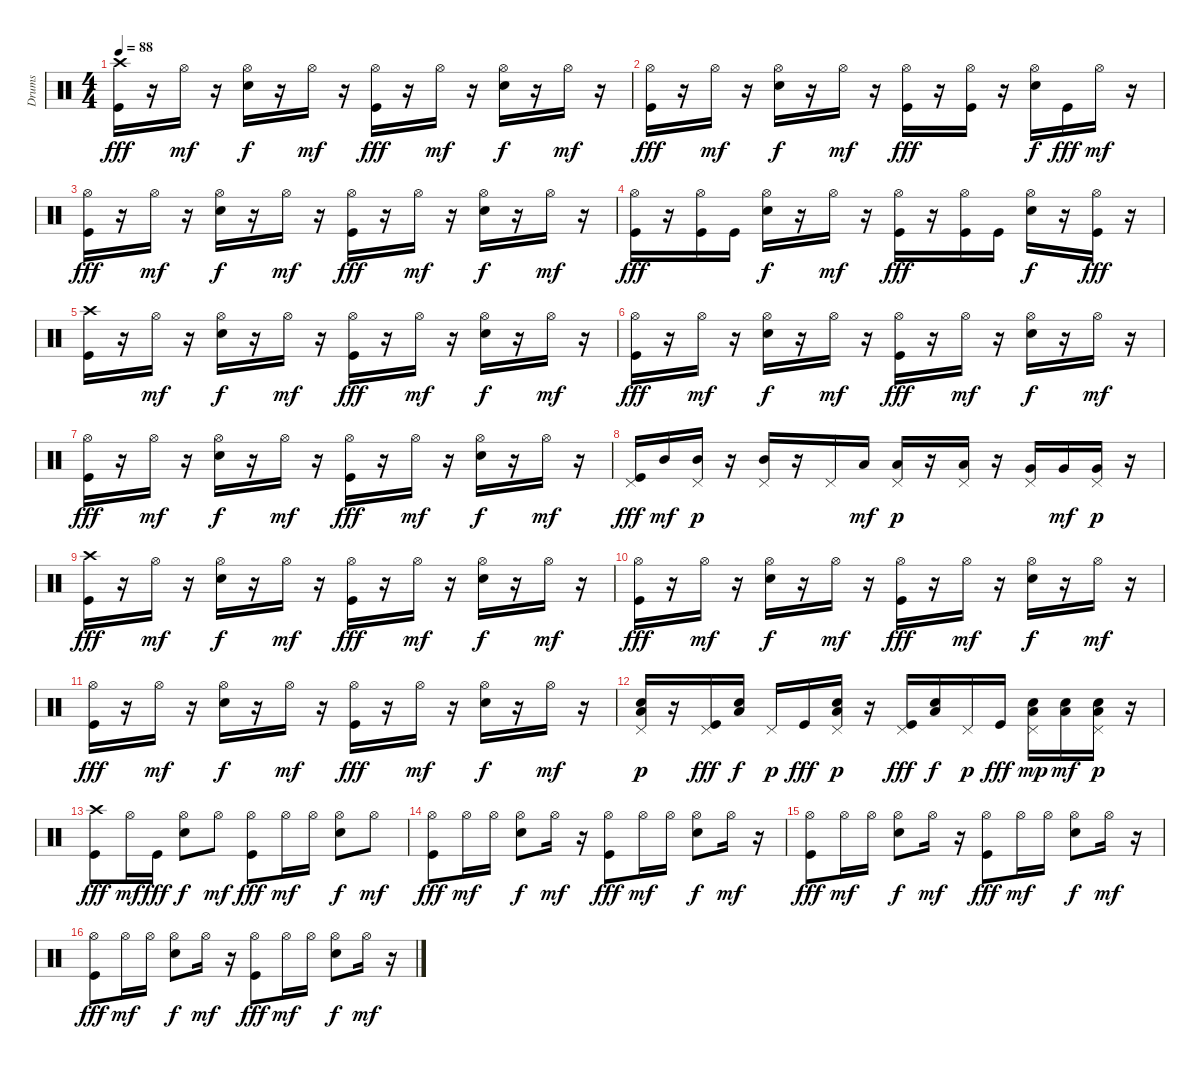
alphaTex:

\track ("Drums" "Drums") {instrument percussion}
\staff {score}
\articulation defaults
\ts (4 4)
\tempo 88
\clef neutral
\ks c
("Crash high (hit)" "Kick (hit)").16{dy fff} r.16 "Hi-Hat (open)".16{dy mf} r.16 ("Hi-Hat (open)" "Snare (hit) 2").16{dy f} r.16 "Hi-Hat (open)".16{dy mf} r.16 ("Hi-Hat (open)" "Kick (hit)").16{dy fff} r.16 "Hi-Hat (open)".16{dy mf} r.16 ("Hi-Hat (open)" "Snare (hit) 2").16{dy f} r.16 "Hi-Hat (open)".16{dy mf} r.16 |
("Hi-Hat (open)" "Kick (hit)").16{dy fff} r.16 "Hi-Hat (open)".16{dy mf} r.16 ("Hi-Hat (open)" "Snare (hit) 2").16{dy f} r.16 "Hi-Hat (open)".16{dy mf} r.16 ("Hi-Hat (open)" "Kick (hit)").16{dy fff} r.16 ("Hi-Hat (open)" "Kick (hit)").16 r.16 ("Hi-Hat (open)" "Snare (hit) 2").16{dy f} "Kick (hit)".16{dy fff} "Hi-Hat (open)".16{dy mf} r.16 |
("Hi-Hat (open)" "Kick (hit)").16{dy fff} r.16 "Hi-Hat (open)".16{dy mf} r.16 ("Hi-Hat (open)" "Snare (hit) 2").16{dy f} r.16 "Hi-Hat (open)".16{dy mf} r.16 ("Hi-Hat (open)" "Kick (hit)").16{dy fff} r.16 "Hi-Hat (open)".16{dy mf} r.16 ("Hi-Hat (open)" "Snare (hit) 2").16{dy f} r.16 "Hi-Hat (open)".16{dy mf} r.16 |
("Hi-Hat (open)" "Kick (hit)").16{dy fff} r.16 ("Hi-Hat (open)" "Kick (hit)").16 "Kick (hit)".16 ("Hi-Hat (open)" "Snare (hit) 2").16{dy f} r.16 "Hi-Hat (open)".16{dy mf} r.16 ("Hi-Hat (open)" "Kick (hit)").16{dy fff} r.16 ("Hi-Hat (open)" "Kick (hit)").16 "Kick (hit)".16 ("Hi-Hat (open)" "Snare (hit) 2").16{dy f} r.16 ("Hi-Hat (open)" "Kick (hit)").16{dy fff} r.16 |
("Crash high (hit)" "Kick (hit)").16 r.16 "Hi-Hat (open)".16{dy mf} r.16 ("Hi-Hat (open)" "Snare (hit) 2").16{dy f} r.16 "Hi-Hat (open)".16{dy mf} r.16 ("Hi-Hat (open)" "Kick (hit)").16{dy fff} r.16 "Hi-Hat (open)".16{dy mf} r.16 ("Hi-Hat (open)" "Snare (hit) 2").16{dy f} r.16 "Hi-Hat (open)".16{dy mf} r.16 |
("Hi-Hat (open)" "Kick (hit)").16{dy fff} r.16 "Hi-Hat (open)".16{dy mf} r.16 ("Hi-Hat (open)" "Snare (hit) 2").16{dy f} r.16 "Hi-Hat (open)".16{dy mf} r.16 ("Hi-Hat (open)" "Kick (hit)").16{dy fff} r.16 "Hi-Hat (open)".16{dy mf} r.16 ("Hi-Hat (open)" "Snare (hit) 2").16{dy f} r.16 "Hi-Hat (open)".16{dy mf} r.16 |
("Hi-Hat (open)" "Kick (hit)").16{dy fff} r.16 "Hi-Hat (open)".16{dy mf} r.16 ("Hi-Hat (open)" "Snare (hit) 2").16{dy f} r.16 "Hi-Hat (open)".16{dy mf} r.16 ("Hi-Hat (open)" "Kick (hit)").16{dy fff} r.16 "Hi-Hat (open)".16{dy mf} r.16 ("Hi-Hat (open)" "Snare (hit) 2").16{dy f} r.16 "Hi-Hat (open)".16{dy mf} r.16 |
("Pedal Hi-Hat (hit)" "Kick (hit)").16{dy fff} "Mid Tom (hit)".16{dy mf} ("Pedal Hi-Hat (hit)" "Mid Tom (hit)").16{dy p} r.16 ("Pedal Hi-Hat (hit)" "Mid Tom (hit)").16 r.16 "Pedal Hi-Hat (hit)".16 "Low Tom (hit)".16{dy mf} ("Pedal Hi-Hat (hit)" "Low Tom (hit)").16{dy p} r.16 ("Pedal Hi-Hat (hit)" "Low Tom (hit)").16 r.16 ("Pedal Hi-Hat (hit)" "Very Low Tom (hit)").16 "Very Low Tom (hit)".16{dy mf} ("Pedal Hi-Hat (hit)" "Very Low Tom (hit)").16{dy p} r.16 |
("Crash high (hit)" "Kick (hit)").16{dy fff} r.16 "Hi-Hat (open)".16{dy mf} r.16 ("Hi-Hat (open)" "Snare (hit) 2").16{dy f} r.16 "Hi-Hat (open)".16{dy mf} r.16 ("Hi-Hat (open)" "Kick (hit)").16{dy fff} r.16 "Hi-Hat (open)".16{dy mf} r.16 ("Hi-Hat (open)" "Snare (hit) 2").16{dy f} r.16 "Hi-Hat (open)".16{dy mf} r.16 |
("Hi-Hat (open)" "Kick (hit)").16{dy fff} r.16 "Hi-Hat (open)".16{dy mf} r.16 ("Hi-Hat (open)" "Snare (hit) 2").16{dy f} r.16 "Hi-Hat (open)".16{dy mf} r.16 ("Hi-Hat (open)" "Kick (hit)").16{dy fff} r.16 "Hi-Hat (open)".16{dy mf} r.16 ("Hi-Hat (open)" "Snare (hit) 2").16{dy f} r.16 "Hi-Hat (open)".16{dy mf} r.16 |
("Hi-Hat (open)" "Kick (hit)").16{dy fff} r.16 "Hi-Hat (open)".16{dy mf} r.16 ("Hi-Hat (open)" "Snare (hit) 2").16{dy f} r.16 "Hi-Hat (open)".16{dy mf} r.16 ("Hi-Hat (open)" "Kick (hit)").16{dy fff} r.16 "Hi-Hat (open)".16{dy mf} r.16 ("Hi-Hat (open)" "Snare (hit) 2").16{dy f} r.16 "Hi-Hat (open)".16{dy mf} r.16 |
("Pedal Hi-Hat (hit)" "Low Tom (hit)" "Snare (hit) 2").16{dy p} r.16 ("Pedal Hi-Hat (hit)" "Kick (hit)").16{dy fff} ("Low Tom (hit)" "Snare (hit) 2").16{dy f} "Pedal Hi-Hat (hit)".16{dy p} "Kick (hit)".16{dy fff} ("Pedal Hi-Hat (hit)" "Low Tom (hit)" "Snare (hit) 2").16{dy p} r.16 ("Pedal Hi-Hat (hit)" "Kick (hit)").16{dy fff} ("Low Tom (hit)" "Snare (hit) 2").16{dy f} "Pedal Hi-Hat (hit)".16{dy p} "Kick (hit)".16{dy fff} ("Pedal Hi-Hat (hit)" "Low Tom (hit)" "Snare (hit) 2").16{dy mp} ("Low Tom (hit)" "Snare (hit) 2").16{dy mf} ("Pedal Hi-Hat (hit)" "Low Tom (hit)" "Snare (hit) 2").16{dy p} r.16 |
("Crash high (hit)" "Kick (hit)").8{dy fff} "Hi-Hat (open)".16{dy mf} "Kick (hit)".16{dy fff} ("Hi-Hat (open)" "Snare (hit) 2").8{dy f} "Hi-Hat (open)".8{dy mf} ("Hi-Hat (open)" "Kick (hit)").8{dy fff} "Hi-Hat (open)".16{dy mf} "Hi-Hat (open)".16 ("Hi-Hat (open)" "Snare (hit) 2").8{dy f} "Hi-Hat (open)".8{dy mf} |
("Hi-Hat (open)" "Kick (hit)").8{dy fff} "Hi-Hat (open)".16{dy mf} "Hi-Hat (open)".16 ("Hi-Hat (open)" "Snare (hit) 2").8{dy f} "Hi-Hat (open)".16{dy mf} r.16 ("Hi-Hat (open)" "Kick (hit)").8{dy fff} "Hi-Hat (open)".16{dy mf} "Hi-Hat (open)".16 ("Hi-Hat (open)" "Snare (hit) 2").8{dy f} "Hi-Hat (open)".16{dy mf} r.16 |
("Hi-Hat (open)" "Kick (hit)").8{dy fff} "Hi-Hat (open)".16{dy mf} "Hi-Hat (open)".16 ("Hi-Hat (open)" "Snare (hit) 2").8{dy f} "Hi-Hat (open)".16{dy mf} r.16 ("Hi-Hat (open)" "Kick (hit)").8{dy fff} "Hi-Hat (open)".16{dy mf} "Hi-Hat (open)".16 ("Hi-Hat (open)" "Snare (hit) 2").8{dy f} "Hi-Hat (open)".16{dy mf} r.16 |
("Hi-Hat (open)" "Kick (hit)").8{dy fff} "Hi-Hat (open)".16{dy mf} "Hi-Hat (open)".16 ("Hi-Hat (open)" "Snare (hit) 2").8{dy f} "Hi-Hat (open)".16{dy mf} r.16 ("Hi-Hat (open)" "Kick (hit)").8{dy fff} "Hi-Hat (open)".16{dy mf} "Hi-Hat (open)".16 ("Hi-Hat (open)" "Snare (hit) 2").8{dy f} "Hi-Hat (open)".16{dy mf} r.16
